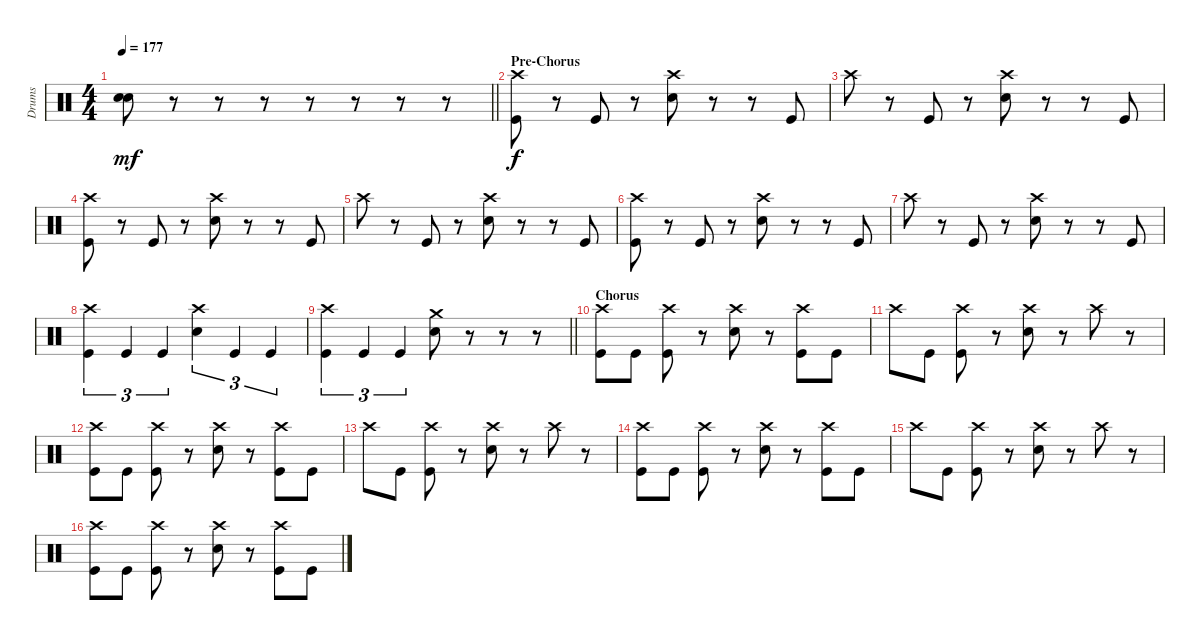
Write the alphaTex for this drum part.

\track ("Drums" "Drums") {instrument percussion}
\staff {score}
\articulation defaults
\ts (4 4)
\tempo 177
\clef neutral
\barLineRight lightlight
\ks c
("Snare (hit) 2" "Snare (hit) 2").8{dy mf} r.8 r.8 r.8 r.8 r.8 r.8 r.8 |
\section ("" "Pre-Chorus")
("Crash high (hit)" "Kick (hit)").8{dy f} r.8 "Kick (hit)".8 r.8 ("Crash high (hit)" "Snare (hit) 2").8 r.8 r.8 "Kick (hit)".8 |
"Crash high (hit)".8 r.8 "Kick (hit)".8 r.8 ("Crash high (hit)" "Snare (hit) 2").8 r.8 r.8 "Kick (hit)".8 |
("Crash high (hit)" "Kick (hit)").8 r.8 "Kick (hit)".8 r.8 ("Crash high (hit)" "Snare (hit) 2").8 r.8 r.8 "Kick (hit)".8 |
"Crash high (hit)".8 r.8 "Kick (hit)".8 r.8 ("Crash high (hit)" "Snare (hit) 2").8 r.8 r.8 "Kick (hit)".8 |
("Crash high (hit)" "Kick (hit)").8 r.8 "Kick (hit)".8 r.8 ("Crash high (hit)" "Snare (hit) 2").8 r.8 r.8 "Kick (hit)".8 |
"Crash high (hit)".8 r.8 "Kick (hit)".8 r.8 ("Crash high (hit)" "Snare (hit) 2").8 r.8 r.8 "Kick (hit)".8 |
("Crash high (hit)" "Kick (hit)").4{tu (3 2)} "Kick (hit)".4{tu (3 2)} "Kick (hit)".4{tu (3 2)} ("Crash high (hit)" "Snare (hit) 2").4{tu (3 2)} "Kick (hit)".4{tu (3 2)} "Kick (hit)".4{tu (3 2)} |
\barLineRight lightlight
("Crash high (hit)" "Kick (hit)").4{tu (3 2)} "Kick (hit)".4{tu (3 2)} "Kick (hit)".4{tu (3 2)} ("Crash medium (hit)" "Snare (hit) 2").8 r.8 r.8 r.8 |
\section ("" "Chorus")
("Crash high (hit)" "Kick (hit)").8 "Kick (hit)".8 ("Crash high (hit)" "Kick (hit)").8 r.8 ("Crash high (hit)" "Snare (hit) 2").8 r.8 ("Crash high (hit)" "Kick (hit)").8 "Kick (hit)".8 |
"Crash high (hit)".8 "Kick (hit)".8 ("Crash high (hit)" "Kick (hit)").8 r.8 ("Crash high (hit)" "Snare (hit) 2").8 r.8 "Crash high (hit)".8 r.8 |
("Crash high (hit)" "Kick (hit)").8 "Kick (hit)".8 ("Crash high (hit)" "Kick (hit)").8 r.8 ("Crash high (hit)" "Snare (hit) 2").8 r.8 ("Crash high (hit)" "Kick (hit)").8 "Kick (hit)".8 |
"Crash high (hit)".8 "Kick (hit)".8 ("Crash high (hit)" "Kick (hit)").8 r.8 ("Crash high (hit)" "Snare (hit) 2").8 r.8 "Crash high (hit)".8 r.8 |
("Crash high (hit)" "Kick (hit)").8 "Kick (hit)".8 ("Crash high (hit)" "Kick (hit)").8 r.8 ("Crash high (hit)" "Snare (hit) 2").8 r.8 ("Crash high (hit)" "Kick (hit)").8 "Kick (hit)".8 |
"Crash high (hit)".8 "Kick (hit)".8 ("Crash high (hit)" "Kick (hit)").8 r.8 ("Crash high (hit)" "Snare (hit) 2").8 r.8 "Crash high (hit)".8 r.8 |
("Crash high (hit)" "Kick (hit)").8 "Kick (hit)".8 ("Crash high (hit)" "Kick (hit)").8 r.8 ("Crash high (hit)" "Snare (hit) 2").8 r.8 ("Crash high (hit)" "Kick (hit)").8 "Kick (hit)".8
